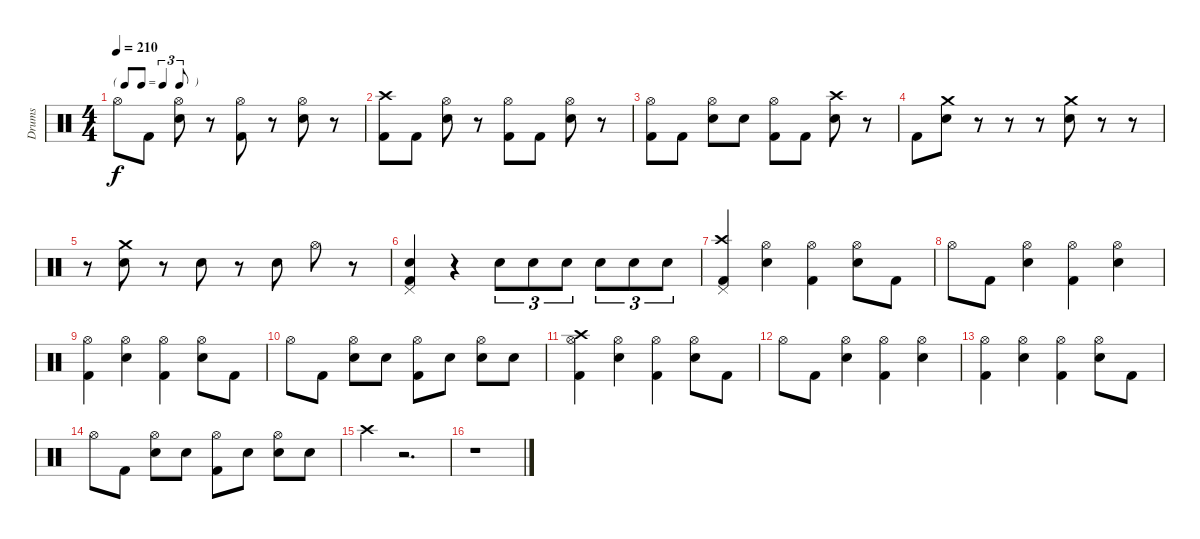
\track ("Drums" "Drums") {instrument percussion}
\staff {score}
\articulation defaults
\ts (4 4)
\tf triplet8th
\tempo 210
\clef neutral
\ks c "Hi-Hat (open)".8{dy f} "Kick (hit) 2".8
("Hi-Hat (open)" "Snare (hit) 2").8 r.8 ("Hi-Hat (open)" "Kick (hit) 2").8 r.8 ("Hi-Hat (open)" "Snare (hit) 2").8 r.8 |
("Crash high (hit)" "Kick (hit) 2").8 "Kick (hit) 2".8 ("Hi-Hat (open)" "Snare (hit) 2").8 r.8 ("Hi-Hat (open)" "Kick (hit) 2").8 "Kick (hit) 2".8 ("Hi-Hat (open)" "Snare (hit) 2").8 r.8 |
("Hi-Hat (open)" "Kick (hit) 2").8 "Kick (hit) 2".8 ("Hi-Hat (open)" "Snare (hit) 2").8 "Snare (hit) 2".8 ("Hi-Hat (open)" "Kick (hit) 2").8 "Kick (hit) 2".8 ("Crash high (hit)" "Snare (hit) 2").8 r.8 |
"Kick (hit) 2".8 ("Crash medium (hit)" "Snare (hit) 2").8 r.8 r.8 r.8 ("Crash medium (hit)" "Snare (hit) 2").8 r.8 r.8 |
r.8 ("Crash medium (hit)" "Snare (hit) 2").8 r.8 "Snare (hit) 2".8 r.8 "Snare (hit) 2".8 "Hi-Hat (open)".8 r.8 |
("Pedal Hi-Hat (hit)" "Snare (hit) 2" "Kick (hit) 2").4 r.4 "Snare (hit) 2".8{tu (3 2)} "Snare (hit) 2".8{tu (3 2)} "Snare (hit) 2".8{tu (3 2)} "Snare (hit) 2".8{tu (3 2)} "Snare (hit) 2".8{tu (3 2)} "Snare (hit) 2".8{tu (3 2)} |
("Crash high (hit)" "Pedal Hi-Hat (hit)" "Kick (hit) 2").4 ("Hi-Hat (open)" "Snare (hit) 2").4 ("Hi-Hat (open)" "Kick (hit) 2").4 ("Hi-Hat (open)" "Snare (hit) 2").8 "Kick (hit) 2".8 |
"Hi-Hat (open)".8 "Kick (hit) 2".8 ("Hi-Hat (open)" "Snare (hit) 2").4 ("Hi-Hat (open)" "Kick (hit) 2").4 ("Hi-Hat (open)" "Snare (hit) 2").4 |
("Hi-Hat (open)" "Kick (hit) 2").4 ("Hi-Hat (open)" "Snare (hit) 2").4 ("Hi-Hat (open)" "Kick (hit) 2").4 ("Hi-Hat (open)" "Snare (hit) 2").8 "Kick (hit) 2".8 |
"Hi-Hat (open)".8 "Kick (hit) 2".8 ("Hi-Hat (open)" "Snare (hit) 2").8 "Snare (hit) 2".8 ("Hi-Hat (open)" "Kick (hit) 2").8 "Snare (hit) 2".8 ("Hi-Hat (open)" "Snare (hit) 2").8 "Snare (hit) 2".8 |
("Crash high (hit)" "Hi-Hat (open)" "Kick (hit) 2").4 ("Hi-Hat (open)" "Snare (hit) 2").4 ("Hi-Hat (open)" "Kick (hit) 2").4 ("Hi-Hat (open)" "Snare (hit) 2").8 "Kick (hit) 2".8 |
"Hi-Hat (open)".8 "Kick (hit) 2".8 ("Hi-Hat (open)" "Snare (hit) 2").4 ("Hi-Hat (open)" "Kick (hit) 2").4 ("Hi-Hat (open)" "Snare (hit) 2").4 |
("Hi-Hat (open)" "Kick (hit) 2").4 ("Hi-Hat (open)" "Snare (hit) 2").4 ("Hi-Hat (open)" "Kick (hit) 2").4 ("Hi-Hat (open)" "Snare (hit) 2").8 "Kick (hit) 2".8 |
"Hi-Hat (open)".8 "Kick (hit) 2".8 ("Hi-Hat (open)" "Snare (hit) 2").8 "Snare (hit) 2".8 ("Hi-Hat (open)" "Kick (hit) 2").8 "Snare (hit) 2".8 ("Hi-Hat (open)" "Snare (hit) 2").8 "Snare (hit) 2".8 |
"Crash high (hit)".4 r.2{d} |
r.1
